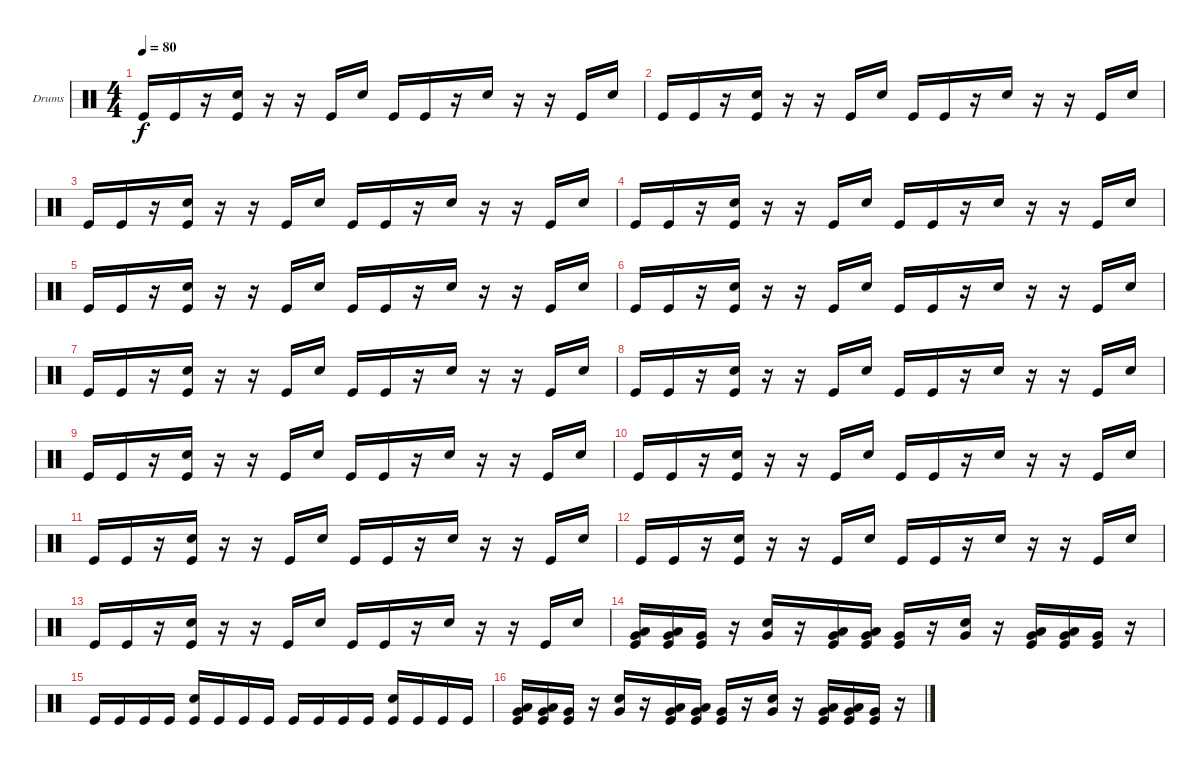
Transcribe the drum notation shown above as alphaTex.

\bracketExtendMode groupsimilarinstruments
\firstSystemTrackNameOrientation horizontal
\otherSystemsTrackNameOrientation horizontal
\track ("Drumkit" "Drums") {instrument percussion}
\staff {score}
\articulation defaults
\ts (4 4)
\tempo 80
\clef neutral
\scale
0.333333
\ks c "Kick (hit)".16{dy f} "Kick (hit)".16
r.16 ("Kick (hit)" "Snare (hit) 2").16 r.16 r.16 "Kick (hit)".16 "Snare (hit) 2".16 "Kick (hit)".16 "Kick (hit)".16 r.16 "Snare (hit) 2".16 r.16 r.16 "Kick (hit)".16 "Snare (hit) 2".16 |
\scale
0.333333 "Kick (hit)".16 "Kick (hit)".16 r.16 ("Kick (hit)" "Snare (hit) 2").16 r.16 r.16 "Kick (hit)".16 "Snare (hit) 2".16 "Kick (hit)".16 "Kick (hit)".16 r.16 "Snare (hit) 2".16 r.16 r.16 "Kick (hit)".16 "Snare (hit) 2".16 |
\scale
0.333333 "Kick (hit)".16 "Kick (hit)".16 r.16 ("Kick (hit)" "Snare (hit) 2").16 r.16 r.16 "Kick (hit)".16 "Snare (hit) 2".16 "Kick (hit)".16 "Kick (hit)".16 r.16 "Snare (hit) 2".16 r.16 r.16 "Kick (hit)".16 "Snare (hit) 2".16 |
\scale
0.333333 "Kick (hit)".16 "Kick (hit)".16 r.16 ("Kick (hit)" "Snare (hit) 2").16 r.16 r.16 "Kick (hit)".16 "Snare (hit) 2".16 "Kick (hit)".16 "Kick (hit)".16 r.16 "Snare (hit) 2".16 r.16 r.16 "Kick (hit)".16 "Snare (hit) 2".16 |
\scale
0.333333 "Kick (hit)".16 "Kick (hit)".16 r.16 ("Kick (hit)" "Snare (hit) 2").16 r.16 r.16 "Kick (hit)".16 "Snare (hit) 2".16 "Kick (hit)".16 "Kick (hit)".16 r.16 "Snare (hit) 2".16 r.16 r.16 "Kick (hit)".16 "Snare (hit) 2".16 |
\scale
0.333333 "Kick (hit)".16 "Kick (hit)".16 r.16 ("Kick (hit)" "Snare (hit) 2").16 r.16 r.16 "Kick (hit)".16 "Snare (hit) 2".16 "Kick (hit)".16 "Kick (hit)".16 r.16 "Snare (hit) 2".16 r.16 r.16 "Kick (hit)".16 "Snare (hit) 2".16 |
\scale
0.333333 "Kick (hit)".16 "Kick (hit)".16 r.16 ("Kick (hit)" "Snare (hit) 2").16 r.16 r.16 "Kick (hit)".16 "Snare (hit) 2".16 "Kick (hit)".16 "Kick (hit)".16 r.16 "Snare (hit) 2".16 r.16 r.16 "Kick (hit)".16 "Snare (hit) 2".16 |
\scale
0.333333 "Kick (hit)".16 "Kick (hit)".16 r.16 ("Kick (hit)" "Snare (hit) 2").16 r.16 r.16 "Kick (hit)".16 "Snare (hit) 2".16 "Kick (hit)".16 "Kick (hit)".16 r.16 "Snare (hit) 2".16 r.16 r.16 "Kick (hit)".16 "Snare (hit) 2".16 |
\scale
0.333333 "Kick (hit)".16 "Kick (hit)".16 r.16 ("Kick (hit)" "Snare (hit) 2").16 r.16 r.16 "Kick (hit)".16 "Snare (hit) 2".16 "Kick (hit)".16 "Kick (hit)".16 r.16 "Snare (hit) 2".16 r.16 r.16 "Kick (hit)".16 "Snare (hit) 2".16 |
\scale
0.333333 "Kick (hit)".16 "Kick (hit)".16 r.16 ("Kick (hit)" "Snare (hit) 2").16 r.16 r.16 "Kick (hit)".16 "Snare (hit) 2".16 "Kick (hit)".16 "Kick (hit)".16 r.16 "Snare (hit) 2".16 r.16 r.16 "Kick (hit)".16 "Snare (hit) 2".16 |
\scale
0.333333 "Kick (hit)".16 "Kick (hit)".16 r.16 ("Kick (hit)" "Snare (hit) 2").16 r.16 r.16 "Kick (hit)".16 "Snare (hit) 2".16 "Kick (hit)".16 "Kick (hit)".16 r.16 "Snare (hit) 2".16 r.16 r.16 "Kick (hit)".16 "Snare (hit) 2".16 |
\scale
0.333333 "Kick (hit)".16 "Kick (hit)".16 r.16 ("Kick (hit)" "Snare (hit) 2").16 r.16 r.16 "Kick (hit)".16 "Snare (hit) 2".16 "Kick (hit)".16 "Kick (hit)".16 r.16 "Snare (hit) 2".16 r.16 r.16 "Kick (hit)".16 "Snare (hit) 2".16 |
\scale
0.333333 "Kick (hit)".16 "Kick (hit)".16 r.16 ("Kick (hit)" "Snare (hit) 2").16 r.16 r.16 "Kick (hit)".16 "Snare (hit) 2".16 "Kick (hit)".16 "Kick (hit)".16 r.16 "Snare (hit) 2".16 r.16 r.16 "Kick (hit)".16 "Snare (hit) 2".16 |
\scale
0.333333 ("Kick (hit)" "Low Tom (hit)" "Very Low Tom (hit)").16 ("Kick (hit)" "Low Tom (hit)" "Very Low Tom (hit)").16 ("Very Low Tom (hit)" "Kick (hit)").16 r.16 ("Very Low Tom (hit)" "Snare (hit) 2").16 r.16 ("Kick (hit)" "Low Tom (hit)" "Very Low Tom (hit)").16 ("Kick (hit)" "Low Tom (hit)" "Very Low Tom (hit)").16 ("Very Low Tom (hit)" "Kick (hit)").16 r.16 ("Very Low Tom (hit)" "Snare (hit) 2").16 r.16 ("Kick (hit)" "Low Tom (hit)" "Very Low Tom (hit)").16 ("Kick (hit)" "Low Tom (hit)" "Very Low Tom (hit)").16 ("Very Low Tom (hit)" "Kick (hit)").16 r.16 |
\scale
0.333333 "Kick (hit)".16 "Kick (hit)".16 "Kick (hit)".16 "Kick (hit)".16 ("Kick (hit)" "Snare (hit) 2").16 "Kick (hit)".16 "Kick (hit)".16 "Kick (hit)".16 "Kick (hit)".16 "Kick (hit)".16 "Kick (hit)".16 "Kick (hit)".16 ("Kick (hit)" "Snare (hit) 2").16 "Kick (hit)".16 "Kick (hit)".16 "Kick (hit)".16 |
\scale
0.333333 ("Kick (hit)" "Low Tom (hit)" "Very Low Tom (hit)").16 ("Kick (hit)" "Low Tom (hit)" "Very Low Tom (hit)").16 ("Very Low Tom (hit)" "Kick (hit)").16 r.16 ("Very Low Tom (hit)" "Snare (hit) 2").16 r.16 ("Kick (hit)" "Low Tom (hit)" "Very Low Tom (hit)").16 ("Kick (hit)" "Low Tom (hit)" "Very Low Tom (hit)").16 ("Very Low Tom (hit)" "Kick (hit)").16 r.16 ("Very Low Tom (hit)" "Snare (hit) 2").16 r.16 ("Kick (hit)" "Low Tom (hit)" "Very Low Tom (hit)").16 ("Kick (hit)" "Low Tom (hit)" "Very Low Tom (hit)").16 ("Very Low Tom (hit)" "Kick (hit)").16 r.16
